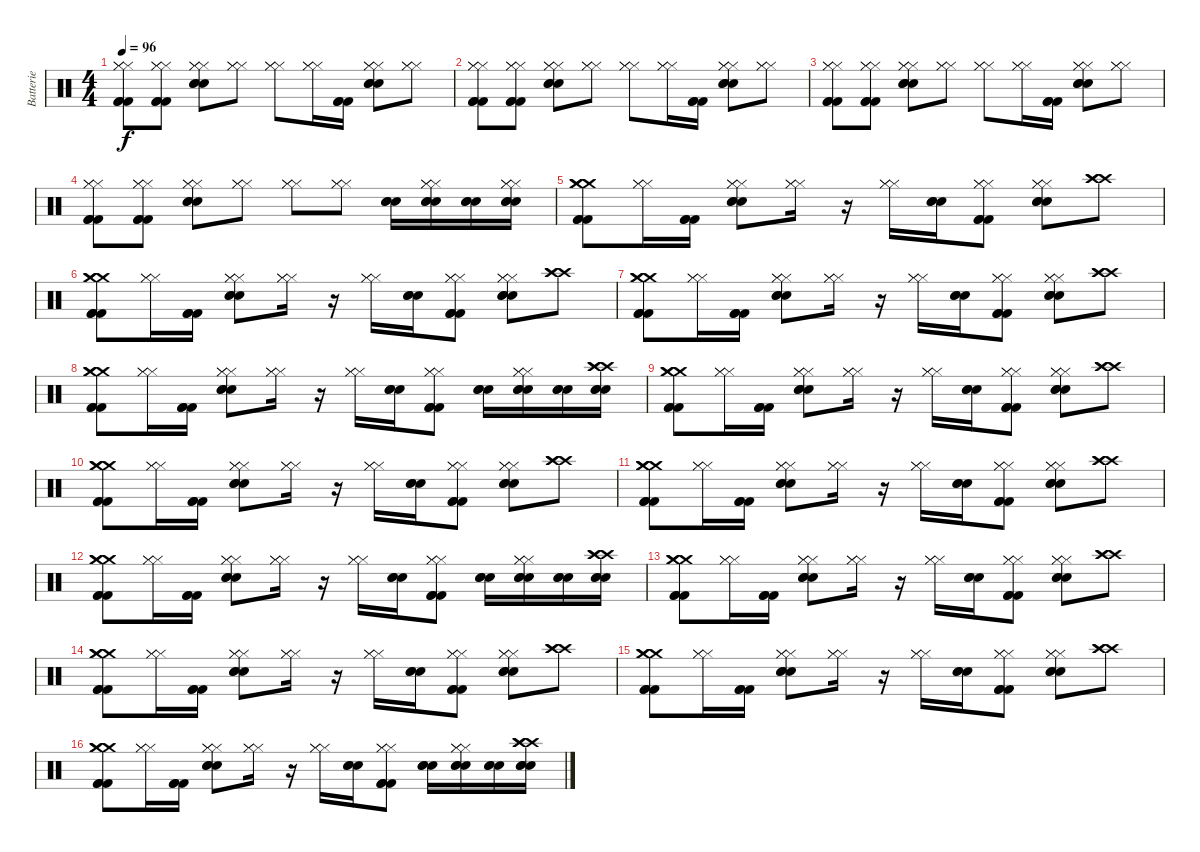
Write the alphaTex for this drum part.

\track ("Batterie" "Batterie") {instrument percussion}
\staff {score}
\articulation defaults
\ts (4 4)
\tempo 96
\clef neutral
\ks c
("Hi-Hat (closed)" "Hi-Hat (closed)" "Hi-Hat (closed)" "Kick (hit) 2" "Kick (hit) 2" "Kick (hit) 2").8{dy f} ("Hi-Hat (closed)" "Hi-Hat (closed)" "Hi-Hat (closed)" "Kick (hit) 2" "Kick (hit) 2" "Kick (hit) 2").8 ("Hi-Hat (closed)" "Hi-Hat (closed)" "Hi-Hat (closed)" "Electric Snare (hit)" "Electric Snare (hit)" "Electric Snare (hit)").8 ("Hi-Hat (closed)" "Hi-Hat (closed)" "Hi-Hat (closed)").8 ("Hi-Hat (closed)" "Hi-Hat (closed)" "Hi-Hat (closed)").8 ("Hi-Hat (closed)" "Hi-Hat (closed)" "Hi-Hat (closed)").16 ("Kick (hit) 2" "Kick (hit) 2" "Kick (hit) 2").16 ("Hi-Hat (closed)" "Hi-Hat (closed)" "Hi-Hat (closed)" "Electric Snare (hit)" "Electric Snare (hit)" "Electric Snare (hit)").8 ("Hi-Hat (closed)" "Hi-Hat (closed)" "Hi-Hat (closed)").8 |
("Hi-Hat (closed)" "Hi-Hat (closed)" "Hi-Hat (closed)" "Kick (hit) 2" "Kick (hit) 2" "Kick (hit) 2").8 ("Hi-Hat (closed)" "Hi-Hat (closed)" "Hi-Hat (closed)" "Kick (hit) 2" "Kick (hit) 2" "Kick (hit) 2").8 ("Hi-Hat (closed)" "Hi-Hat (closed)" "Hi-Hat (closed)" "Electric Snare (hit)" "Electric Snare (hit)" "Electric Snare (hit)").8 ("Hi-Hat (closed)" "Hi-Hat (closed)" "Hi-Hat (closed)").8 ("Hi-Hat (closed)" "Hi-Hat (closed)" "Hi-Hat (closed)").8 ("Hi-Hat (closed)" "Hi-Hat (closed)" "Hi-Hat (closed)").16 ("Kick (hit) 2" "Kick (hit) 2" "Kick (hit) 2").16 ("Hi-Hat (closed)" "Hi-Hat (closed)" "Hi-Hat (closed)" "Electric Snare (hit)" "Electric Snare (hit)" "Electric Snare (hit)").8 ("Hi-Hat (closed)" "Hi-Hat (closed)" "Hi-Hat (closed)").8 |
("Hi-Hat (closed)" "Hi-Hat (closed)" "Hi-Hat (closed)" "Kick (hit) 2" "Kick (hit) 2" "Kick (hit) 2").8 ("Hi-Hat (closed)" "Hi-Hat (closed)" "Hi-Hat (closed)" "Kick (hit) 2" "Kick (hit) 2" "Kick (hit) 2").8 ("Hi-Hat (closed)" "Hi-Hat (closed)" "Hi-Hat (closed)" "Electric Snare (hit)" "Electric Snare (hit)" "Electric Snare (hit)").8 ("Hi-Hat (closed)" "Hi-Hat (closed)" "Hi-Hat (closed)").8 ("Hi-Hat (closed)" "Hi-Hat (closed)" "Hi-Hat (closed)").8 ("Hi-Hat (closed)" "Hi-Hat (closed)" "Hi-Hat (closed)").16 ("Kick (hit) 2" "Kick (hit) 2" "Kick (hit) 2").16 ("Hi-Hat (closed)" "Hi-Hat (closed)" "Hi-Hat (closed)" "Electric Snare (hit)" "Electric Snare (hit)" "Electric Snare (hit)").8 ("Hi-Hat (closed)" "Hi-Hat (closed)" "Hi-Hat (closed)").8 |
("Hi-Hat (closed)" "Hi-Hat (closed)" "Hi-Hat (closed)" "Kick (hit) 2" "Kick (hit) 2" "Kick (hit) 2").8 ("Hi-Hat (closed)" "Hi-Hat (closed)" "Hi-Hat (closed)" "Kick (hit) 2" "Kick (hit) 2" "Kick (hit) 2").8 ("Hi-Hat (closed)" "Hi-Hat (closed)" "Hi-Hat (closed)" "Electric Snare (hit)" "Electric Snare (hit)" "Electric Snare (hit)").8 ("Hi-Hat (closed)" "Hi-Hat (closed)" "Hi-Hat (closed)").8 ("Hi-Hat (closed)" "Hi-Hat (closed)" "Hi-Hat (closed)").8 ("Hi-Hat (closed)" "Hi-Hat (closed)" "Hi-Hat (closed)").8 ("Electric Snare (hit)" "Electric Snare (hit)" "Electric Snare (hit)").16 ("Hi-Hat (closed)" "Hi-Hat (closed)" "Hi-Hat (closed)" "Electric Snare (hit)" "Electric Snare (hit)" "Electric Snare (hit)").16 ("Electric Snare (hit)" "Electric Snare (hit)" "Electric Snare (hit)").16 ("Hi-Hat (closed)" "Hi-Hat (closed)" "Hi-Hat (closed)" "Electric Snare (hit)" "Electric Snare (hit)" "Electric Snare (hit)").16 |
("Crash medium (hit)" "Crash medium (hit)" "Crash medium (hit)" "Kick (hit) 2" "Kick (hit) 2" "Kick (hit) 2").8 ("Hi-Hat (closed)" "Hi-Hat (closed)" "Hi-Hat (closed)").16 ("Kick (hit) 2" "Kick (hit) 2" "Kick (hit) 2").16 ("Hi-Hat (closed)" "Hi-Hat (closed)" "Hi-Hat (closed)" "Electric Snare (hit)" "Electric Snare (hit)" "Electric Snare (hit)").8 ("Hi-Hat (closed)" "Hi-Hat (closed)" "Hi-Hat (closed)").16 r.16 ("Hi-Hat (closed)" "Hi-Hat (closed)" "Hi-Hat (closed)").16 ("Electric Snare (hit)" "Electric Snare (hit)" "Electric Snare (hit)").16 ("Hi-Hat (closed)" "Hi-Hat (closed)" "Hi-Hat (closed)" "Kick (hit) 2" "Kick (hit) 2" "Kick (hit) 2").8 ("Hi-Hat (closed)" "Hi-Hat (closed)" "Hi-Hat (closed)" "Electric Snare (hit)" "Electric Snare (hit)" "Electric Snare (hit)").8 ("Crash high (hit)" "Crash high (hit)" "Crash high (hit)").8 |
("Crash medium (hit)" "Crash medium (hit)" "Crash medium (hit)" "Kick (hit) 2" "Kick (hit) 2" "Kick (hit) 2").8 ("Hi-Hat (closed)" "Hi-Hat (closed)" "Hi-Hat (closed)").16 ("Kick (hit) 2" "Kick (hit) 2" "Kick (hit) 2").16 ("Hi-Hat (closed)" "Hi-Hat (closed)" "Hi-Hat (closed)" "Electric Snare (hit)" "Electric Snare (hit)" "Electric Snare (hit)").8 ("Hi-Hat (closed)" "Hi-Hat (closed)" "Hi-Hat (closed)").16 r.16 ("Hi-Hat (closed)" "Hi-Hat (closed)" "Hi-Hat (closed)").16 ("Electric Snare (hit)" "Electric Snare (hit)" "Electric Snare (hit)").16 ("Hi-Hat (closed)" "Hi-Hat (closed)" "Hi-Hat (closed)" "Kick (hit) 2" "Kick (hit) 2" "Kick (hit) 2").8 ("Hi-Hat (closed)" "Hi-Hat (closed)" "Hi-Hat (closed)" "Electric Snare (hit)" "Electric Snare (hit)" "Electric Snare (hit)").8 ("Crash high (hit)" "Crash high (hit)" "Crash high (hit)").8 |
("Crash medium (hit)" "Crash medium (hit)" "Crash medium (hit)" "Kick (hit) 2" "Kick (hit) 2" "Kick (hit) 2").8 ("Hi-Hat (closed)" "Hi-Hat (closed)" "Hi-Hat (closed)").16 ("Kick (hit) 2" "Kick (hit) 2" "Kick (hit) 2").16 ("Hi-Hat (closed)" "Hi-Hat (closed)" "Hi-Hat (closed)" "Electric Snare (hit)" "Electric Snare (hit)" "Electric Snare (hit)").8 ("Hi-Hat (closed)" "Hi-Hat (closed)" "Hi-Hat (closed)").16 r.16 ("Hi-Hat (closed)" "Hi-Hat (closed)" "Hi-Hat (closed)").16 ("Electric Snare (hit)" "Electric Snare (hit)" "Electric Snare (hit)").16 ("Hi-Hat (closed)" "Hi-Hat (closed)" "Hi-Hat (closed)" "Kick (hit) 2" "Kick (hit) 2" "Kick (hit) 2").8 ("Hi-Hat (closed)" "Hi-Hat (closed)" "Hi-Hat (closed)" "Electric Snare (hit)" "Electric Snare (hit)" "Electric Snare (hit)").8 ("Crash high (hit)" "Crash high (hit)" "Crash high (hit)").8 |
("Crash medium (hit)" "Crash medium (hit)" "Crash medium (hit)" "Kick (hit) 2" "Kick (hit) 2" "Kick (hit) 2").8 ("Hi-Hat (closed)" "Hi-Hat (closed)" "Hi-Hat (closed)").16 ("Kick (hit) 2" "Kick (hit) 2" "Kick (hit) 2").16 ("Hi-Hat (closed)" "Hi-Hat (closed)" "Hi-Hat (closed)" "Electric Snare (hit)" "Electric Snare (hit)" "Electric Snare (hit)").8 ("Hi-Hat (closed)" "Hi-Hat (closed)" "Hi-Hat (closed)").16 r.16 ("Hi-Hat (closed)" "Hi-Hat (closed)" "Hi-Hat (closed)").16 ("Electric Snare (hit)" "Electric Snare (hit)" "Electric Snare (hit)").16 ("Hi-Hat (closed)" "Hi-Hat (closed)" "Hi-Hat (closed)" "Kick (hit) 2" "Kick (hit) 2" "Kick (hit) 2").8 ("Electric Snare (hit)" "Electric Snare (hit)" "Electric Snare (hit)").16 ("Hi-Hat (closed)" "Hi-Hat (closed)" "Hi-Hat (closed)" "Electric Snare (hit)" "Electric Snare (hit)" "Electric Snare (hit)").16 ("Electric Snare (hit)" "Electric Snare (hit)" "Electric Snare (hit)").16 ("Crash high (hit)" "Crash high (hit)" "Crash high (hit)" "Electric Snare (hit)" "Electric Snare (hit)" "Electric Snare (hit)").16 |
("Crash medium (hit)" "Crash medium (hit)" "Crash medium (hit)" "Kick (hit) 2" "Kick (hit) 2" "Kick (hit) 2").8 ("Hi-Hat (closed)" "Hi-Hat (closed)" "Hi-Hat (closed)").16 ("Kick (hit) 2" "Kick (hit) 2" "Kick (hit) 2").16 ("Hi-Hat (closed)" "Hi-Hat (closed)" "Hi-Hat (closed)" "Electric Snare (hit)" "Electric Snare (hit)" "Electric Snare (hit)").8 ("Hi-Hat (closed)" "Hi-Hat (closed)" "Hi-Hat (closed)").16 r.16 ("Hi-Hat (closed)" "Hi-Hat (closed)" "Hi-Hat (closed)").16 ("Electric Snare (hit)" "Electric Snare (hit)" "Electric Snare (hit)").16 ("Hi-Hat (closed)" "Hi-Hat (closed)" "Hi-Hat (closed)" "Kick (hit) 2" "Kick (hit) 2" "Kick (hit) 2").8 ("Hi-Hat (closed)" "Hi-Hat (closed)" "Hi-Hat (closed)" "Electric Snare (hit)" "Electric Snare (hit)" "Electric Snare (hit)").8 ("Crash high (hit)" "Crash high (hit)" "Crash high (hit)").8 |
("Crash medium (hit)" "Crash medium (hit)" "Crash medium (hit)" "Kick (hit) 2" "Kick (hit) 2" "Kick (hit) 2").8 ("Hi-Hat (closed)" "Hi-Hat (closed)" "Hi-Hat (closed)").16 ("Kick (hit) 2" "Kick (hit) 2" "Kick (hit) 2").16 ("Hi-Hat (closed)" "Hi-Hat (closed)" "Hi-Hat (closed)" "Electric Snare (hit)" "Electric Snare (hit)" "Electric Snare (hit)").8 ("Hi-Hat (closed)" "Hi-Hat (closed)" "Hi-Hat (closed)").16 r.16 ("Hi-Hat (closed)" "Hi-Hat (closed)" "Hi-Hat (closed)").16 ("Electric Snare (hit)" "Electric Snare (hit)" "Electric Snare (hit)").16 ("Hi-Hat (closed)" "Hi-Hat (closed)" "Hi-Hat (closed)" "Kick (hit) 2" "Kick (hit) 2" "Kick (hit) 2").8 ("Hi-Hat (closed)" "Hi-Hat (closed)" "Hi-Hat (closed)" "Electric Snare (hit)" "Electric Snare (hit)" "Electric Snare (hit)").8 ("Crash high (hit)" "Crash high (hit)" "Crash high (hit)").8 |
("Crash medium (hit)" "Crash medium (hit)" "Crash medium (hit)" "Kick (hit) 2" "Kick (hit) 2" "Kick (hit) 2").8 ("Hi-Hat (closed)" "Hi-Hat (closed)" "Hi-Hat (closed)").16 ("Kick (hit) 2" "Kick (hit) 2" "Kick (hit) 2").16 ("Hi-Hat (closed)" "Hi-Hat (closed)" "Hi-Hat (closed)" "Electric Snare (hit)" "Electric Snare (hit)" "Electric Snare (hit)").8 ("Hi-Hat (closed)" "Hi-Hat (closed)" "Hi-Hat (closed)").16 r.16 ("Hi-Hat (closed)" "Hi-Hat (closed)" "Hi-Hat (closed)").16 ("Electric Snare (hit)" "Electric Snare (hit)" "Electric Snare (hit)").16 ("Hi-Hat (closed)" "Hi-Hat (closed)" "Hi-Hat (closed)" "Kick (hit) 2" "Kick (hit) 2" "Kick (hit) 2").8 ("Hi-Hat (closed)" "Hi-Hat (closed)" "Hi-Hat (closed)" "Electric Snare (hit)" "Electric Snare (hit)" "Electric Snare (hit)").8 ("Crash high (hit)" "Crash high (hit)" "Crash high (hit)").8 |
("Crash medium (hit)" "Crash medium (hit)" "Crash medium (hit)" "Kick (hit) 2" "Kick (hit) 2" "Kick (hit) 2").8 ("Hi-Hat (closed)" "Hi-Hat (closed)" "Hi-Hat (closed)").16 ("Kick (hit) 2" "Kick (hit) 2" "Kick (hit) 2").16 ("Hi-Hat (closed)" "Hi-Hat (closed)" "Hi-Hat (closed)" "Electric Snare (hit)" "Electric Snare (hit)" "Electric Snare (hit)").8 ("Hi-Hat (closed)" "Hi-Hat (closed)" "Hi-Hat (closed)").16 r.16 ("Hi-Hat (closed)" "Hi-Hat (closed)" "Hi-Hat (closed)").16 ("Electric Snare (hit)" "Electric Snare (hit)" "Electric Snare (hit)").16 ("Hi-Hat (closed)" "Hi-Hat (closed)" "Hi-Hat (closed)" "Kick (hit) 2" "Kick (hit) 2" "Kick (hit) 2").8 ("Electric Snare (hit)" "Electric Snare (hit)" "Electric Snare (hit)").16 ("Hi-Hat (closed)" "Hi-Hat (closed)" "Hi-Hat (closed)" "Electric Snare (hit)" "Electric Snare (hit)" "Electric Snare (hit)").16 ("Electric Snare (hit)" "Electric Snare (hit)" "Electric Snare (hit)").16 ("Crash high (hit)" "Crash high (hit)" "Crash high (hit)" "Electric Snare (hit)" "Electric Snare (hit)" "Electric Snare (hit)").16 |
("Crash medium (hit)" "Crash medium (hit)" "Crash medium (hit)" "Kick (hit) 2" "Kick (hit) 2" "Kick (hit) 2").8 ("Hi-Hat (closed)" "Hi-Hat (closed)" "Hi-Hat (closed)").16 ("Kick (hit) 2" "Kick (hit) 2" "Kick (hit) 2").16 ("Hi-Hat (closed)" "Hi-Hat (closed)" "Hi-Hat (closed)" "Electric Snare (hit)" "Electric Snare (hit)" "Electric Snare (hit)").8 ("Hi-Hat (closed)" "Hi-Hat (closed)" "Hi-Hat (closed)").16 r.16 ("Hi-Hat (closed)" "Hi-Hat (closed)" "Hi-Hat (closed)").16 ("Electric Snare (hit)" "Electric Snare (hit)" "Electric Snare (hit)").16 ("Hi-Hat (closed)" "Hi-Hat (closed)" "Hi-Hat (closed)" "Kick (hit) 2" "Kick (hit) 2" "Kick (hit) 2").8 ("Hi-Hat (closed)" "Hi-Hat (closed)" "Hi-Hat (closed)" "Electric Snare (hit)" "Electric Snare (hit)" "Electric Snare (hit)").8 ("Crash high (hit)" "Crash high (hit)" "Crash high (hit)").8 |
("Crash medium (hit)" "Crash medium (hit)" "Crash medium (hit)" "Kick (hit) 2" "Kick (hit) 2" "Kick (hit) 2").8 ("Hi-Hat (closed)" "Hi-Hat (closed)" "Hi-Hat (closed)").16 ("Kick (hit) 2" "Kick (hit) 2" "Kick (hit) 2").16 ("Hi-Hat (closed)" "Hi-Hat (closed)" "Hi-Hat (closed)" "Electric Snare (hit)" "Electric Snare (hit)" "Electric Snare (hit)").8 ("Hi-Hat (closed)" "Hi-Hat (closed)" "Hi-Hat (closed)").16 r.16 ("Hi-Hat (closed)" "Hi-Hat (closed)" "Hi-Hat (closed)").16 ("Electric Snare (hit)" "Electric Snare (hit)" "Electric Snare (hit)").16 ("Hi-Hat (closed)" "Hi-Hat (closed)" "Hi-Hat (closed)" "Kick (hit) 2" "Kick (hit) 2" "Kick (hit) 2").8 ("Hi-Hat (closed)" "Hi-Hat (closed)" "Hi-Hat (closed)" "Electric Snare (hit)" "Electric Snare (hit)" "Electric Snare (hit)").8 ("Crash high (hit)" "Crash high (hit)" "Crash high (hit)").8 |
("Crash medium (hit)" "Crash medium (hit)" "Crash medium (hit)" "Kick (hit) 2" "Kick (hit) 2" "Kick (hit) 2").8 ("Hi-Hat (closed)" "Hi-Hat (closed)" "Hi-Hat (closed)").16 ("Kick (hit) 2" "Kick (hit) 2" "Kick (hit) 2").16 ("Hi-Hat (closed)" "Hi-Hat (closed)" "Hi-Hat (closed)" "Electric Snare (hit)" "Electric Snare (hit)" "Electric Snare (hit)").8 ("Hi-Hat (closed)" "Hi-Hat (closed)" "Hi-Hat (closed)").16 r.16 ("Hi-Hat (closed)" "Hi-Hat (closed)" "Hi-Hat (closed)").16 ("Electric Snare (hit)" "Electric Snare (hit)" "Electric Snare (hit)").16 ("Hi-Hat (closed)" "Hi-Hat (closed)" "Hi-Hat (closed)" "Kick (hit) 2" "Kick (hit) 2" "Kick (hit) 2").8 ("Hi-Hat (closed)" "Hi-Hat (closed)" "Hi-Hat (closed)" "Electric Snare (hit)" "Electric Snare (hit)" "Electric Snare (hit)").8 ("Crash high (hit)" "Crash high (hit)" "Crash high (hit)").8 |
("Crash medium (hit)" "Crash medium (hit)" "Crash medium (hit)" "Kick (hit) 2" "Kick (hit) 2" "Kick (hit) 2").8 ("Hi-Hat (closed)" "Hi-Hat (closed)" "Hi-Hat (closed)").16 ("Kick (hit) 2" "Kick (hit) 2" "Kick (hit) 2").16 ("Hi-Hat (closed)" "Hi-Hat (closed)" "Hi-Hat (closed)" "Electric Snare (hit)" "Electric Snare (hit)" "Electric Snare (hit)").8 ("Hi-Hat (closed)" "Hi-Hat (closed)" "Hi-Hat (closed)").16 r.16 ("Hi-Hat (closed)" "Hi-Hat (closed)" "Hi-Hat (closed)").16 ("Electric Snare (hit)" "Electric Snare (hit)" "Electric Snare (hit)").16 ("Hi-Hat (closed)" "Hi-Hat (closed)" "Hi-Hat (closed)" "Kick (hit) 2" "Kick (hit) 2" "Kick (hit) 2").8 ("Electric Snare (hit)" "Electric Snare (hit)" "Electric Snare (hit)").16 ("Hi-Hat (closed)" "Hi-Hat (closed)" "Hi-Hat (closed)" "Electric Snare (hit)" "Electric Snare (hit)" "Electric Snare (hit)").16 ("Electric Snare (hit)" "Electric Snare (hit)" "Electric Snare (hit)").16 ("Crash high (hit)" "Crash high (hit)" "Crash high (hit)" "Electric Snare (hit)" "Electric Snare (hit)" "Electric Snare (hit)").16
